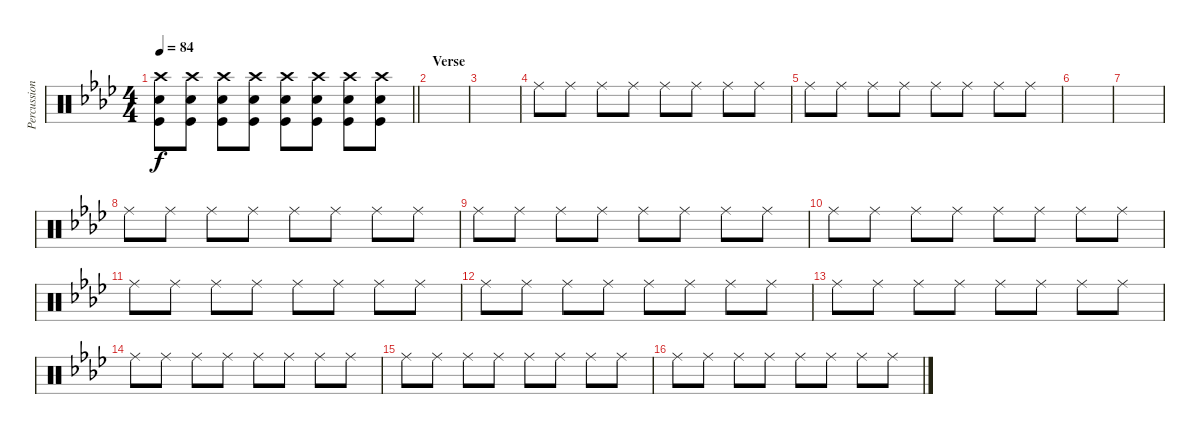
\track ("Percussion" "Percussion") {instrument percussion}
\staff {score}
\articulation defaults
\ts (4 4)
\tempo 84
\clef neutral
\barLineRight lightlight
\ks ab
("Snare (hit) 2" "Kick (hit)" "Crash high (hit)").8{dy f} ("Snare (hit) 2" "Kick (hit)" "Crash high (hit)").8 ("Snare (hit) 2" "Kick (hit)" "Crash high (hit)").8 ("Snare (hit) 2" "Kick (hit)" "Crash high (hit)").8 ("Snare (hit) 2" "Kick (hit)" "Crash high (hit)").8 ("Snare (hit) 2" "Kick (hit)" "Crash high (hit)").8 ("Snare (hit) 2" "Kick (hit)" "Crash high (hit)").8 ("Snare (hit) 2" "Kick (hit)" "Crash high (hit)").8 |
\section ("" "Verse")
|
|
"Ride (middle)".8 "Ride (middle)".8 "Ride (middle)".8 "Ride (middle)".8 "Ride (middle)".8 "Ride (middle)".8 "Ride (middle)".8 "Ride (middle)".8 |
"Ride (middle)".8 "Ride (middle)".8 "Ride (middle)".8 "Ride (middle)".8 "Ride (middle)".8 "Ride (middle)".8 "Ride (middle)".8 "Ride (middle)".8 |
|
|
"Ride (middle)".8 "Ride (middle)".8 "Ride (middle)".8 "Ride (middle)".8 "Ride (middle)".8 "Ride (middle)".8 "Ride (middle)".8 "Ride (middle)".8 |
"Ride (middle)".8 "Ride (middle)".8 "Ride (middle)".8 "Ride (middle)".8 "Ride (middle)".8 "Ride (middle)".8 "Ride (middle)".8 "Ride (middle)".8 |
"Ride (middle)".8 "Ride (middle)".8 "Ride (middle)".8 "Ride (middle)".8 "Ride (middle)".8 "Ride (middle)".8 "Ride (middle)".8 "Ride (middle)".8 |
"Ride (middle)".8 "Ride (middle)".8 "Ride (middle)".8 "Ride (middle)".8 "Ride (middle)".8 "Ride (middle)".8 "Ride (middle)".8 "Ride (middle)".8 |
"Ride (middle)".8 "Ride (middle)".8 "Ride (middle)".8 "Ride (middle)".8 "Ride (middle)".8 "Ride (middle)".8 "Ride (middle)".8 "Ride (middle)".8 |
"Ride (middle)".8 "Ride (middle)".8 "Ride (middle)".8 "Ride (middle)".8 "Ride (middle)".8 "Ride (middle)".8 "Ride (middle)".8 "Ride (middle)".8 |
"Ride (middle)".8 "Ride (middle)".8 "Ride (middle)".8 "Ride (middle)".8 "Ride (middle)".8 "Ride (middle)".8 "Ride (middle)".8 "Ride (middle)".8 |
"Ride (middle)".8 "Ride (middle)".8 "Ride (middle)".8 "Ride (middle)".8 "Ride (middle)".8 "Ride (middle)".8 "Ride (middle)".8 "Ride (middle)".8 |
"Ride (middle)".8 "Ride (middle)".8 "Ride (middle)".8 "Ride (middle)".8 "Ride (middle)".8 "Ride (middle)".8 "Ride (middle)".8 "Ride (middle)".8
